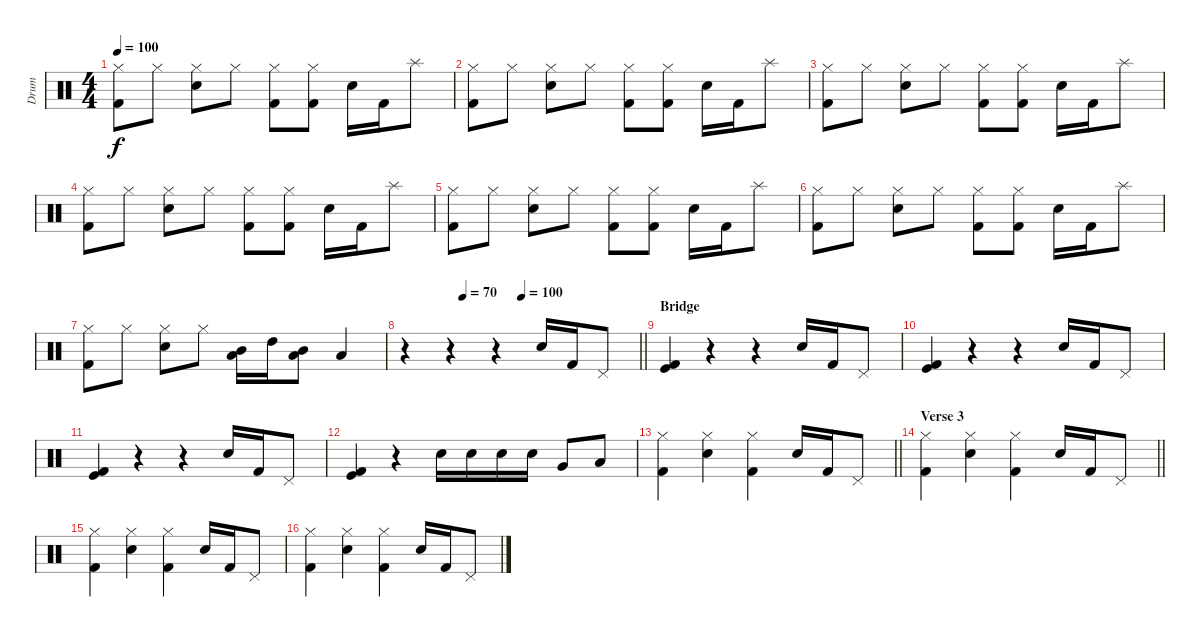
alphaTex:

\track ("Drum" "Drum") {instrument percussion}
\staff {score}
\articulation defaults
\ts (4 4)
\tempo 100
\clef neutral
\ks c
("Hi-Hat (closed)" "Kick (hit) 2").8{dy f} "Hi-Hat (closed)".8 ("Hi-Hat (closed)" "Snare (hit) 2").8 "Hi-Hat (closed)".8 ("Hi-Hat (closed)" "Kick (hit) 2").8 ("Hi-Hat (closed)" "Kick (hit) 2").8 "Electric Snare (hit)".16 "Kick (hit) 2".16 "Splash (hit)".8 |
("Hi-Hat (closed)" "Kick (hit) 2").8 "Hi-Hat (closed)".8 ("Hi-Hat (closed)" "Snare (hit) 2").8 "Hi-Hat (closed)".8 ("Hi-Hat (closed)" "Kick (hit) 2").8 ("Hi-Hat (closed)" "Kick (hit) 2").8 "Electric Snare (hit)".16 "Kick (hit) 2".16 "Splash (hit)".8 |
("Hi-Hat (closed)" "Kick (hit) 2").8 "Hi-Hat (closed)".8 ("Hi-Hat (closed)" "Snare (hit) 2").8 "Hi-Hat (closed)".8 ("Hi-Hat (closed)" "Kick (hit) 2").8 ("Hi-Hat (closed)" "Kick (hit) 2").8 "Electric Snare (hit)".16 "Kick (hit) 2".16 "Splash (hit)".8 |
("Hi-Hat (closed)" "Kick (hit) 2").8 "Hi-Hat (closed)".8 ("Hi-Hat (closed)" "Snare (hit) 2").8 "Hi-Hat (closed)".8 ("Hi-Hat (closed)" "Kick (hit) 2").8 ("Hi-Hat (closed)" "Kick (hit) 2").8 "Electric Snare (hit)".16 "Kick (hit) 2".16 "Splash (hit)".8 |
("Hi-Hat (closed)" "Kick (hit) 2").8 "Hi-Hat (closed)".8 ("Hi-Hat (closed)" "Snare (hit) 2").8 "Hi-Hat (closed)".8 ("Hi-Hat (closed)" "Kick (hit) 2").8 ("Hi-Hat (closed)" "Kick (hit) 2").8 "Electric Snare (hit)".16 "Kick (hit) 2".16 "Splash (hit)".8 |
("Hi-Hat (closed)" "Kick (hit) 2").8 "Hi-Hat (closed)".8 ("Hi-Hat (closed)" "Snare (hit) 2").8 "Hi-Hat (closed)".8 ("Hi-Hat (closed)" "Kick (hit) 2").8 ("Hi-Hat (closed)" "Kick (hit) 2").8 "Electric Snare (hit)".16 "Kick (hit) 2".16 "Splash (hit)".8 |
("Hi-Hat (closed)" "Kick (hit) 2").8 "Hi-Hat (closed)".8 ("Hi-Hat (closed)" "Snare (hit) 2").8 "Hi-Hat (closed)".8 ("Mid Tom (hit)" "Low Tom (hit)").16 "High Tom (hit)".16 ("Mid Tom (hit)" "Low Tom (hit)").8 "Low Tom (hit)".4 |
\tempo (70 0.25)
\tempo (100 0.5)
\barLineRight lightlight
r.4 r.4 r.4 "Electric Snare (hit)".16 "Kick (hit) 2".16 "Pedal Hi-Hat (hit)".8 |
\section ("" "Bridge")
("Kick (hit) 2" "Kick (hit)").4 r.4 r.4 "Electric Snare (hit)".16 "Kick (hit) 2".16 "Pedal Hi-Hat (hit)".8 |
("Kick (hit) 2" "Kick (hit)").4 r.4 r.4 "Electric Snare (hit)".16 "Kick (hit) 2".16 "Pedal Hi-Hat (hit)".8 |
("Kick (hit) 2" "Kick (hit)").4 r.4 r.4 "Electric Snare (hit)".16 "Kick (hit) 2".16 "Pedal Hi-Hat (hit)".8 |
("Kick (hit) 2" "Kick (hit)").4 r.4 "Electric Snare (hit)".16 "Electric Snare (hit)".16 "Electric Snare (hit)".16 "Electric Snare (hit)".16 "Very Low Tom (hit)".8 "Low Tom (hit)".8 |
\barLineRight lightlight
("Hi-Hat (closed)" "Kick (hit) 2").4 ("Hi-Hat (closed)" "Electric Snare (hit)").4 ("Hi-Hat (closed)" "Kick (hit) 2").4 "Electric Snare (hit)".16 "Kick (hit) 2".16 "Pedal Hi-Hat (hit)".8 |
\section ("" "Verse 3")
\barLineRight lightlight
("Hi-Hat (closed)" "Kick (hit) 2").4 ("Hi-Hat (closed)" "Electric Snare (hit)").4 ("Hi-Hat (closed)" "Kick (hit) 2").4 "Electric Snare (hit)".16 "Kick (hit) 2".16 "Pedal Hi-Hat (hit)".8 |
("Hi-Hat (closed)" "Kick (hit) 2").4 ("Hi-Hat (closed)" "Electric Snare (hit)").4 ("Hi-Hat (closed)" "Kick (hit) 2").4 "Electric Snare (hit)".16 "Kick (hit) 2".16 "Pedal Hi-Hat (hit)".8 |
("Hi-Hat (closed)" "Kick (hit) 2").4 ("Hi-Hat (closed)" "Electric Snare (hit)").4 ("Hi-Hat (closed)" "Kick (hit) 2").4 "Electric Snare (hit)".16 "Kick (hit) 2".16 "Pedal Hi-Hat (hit)".8
